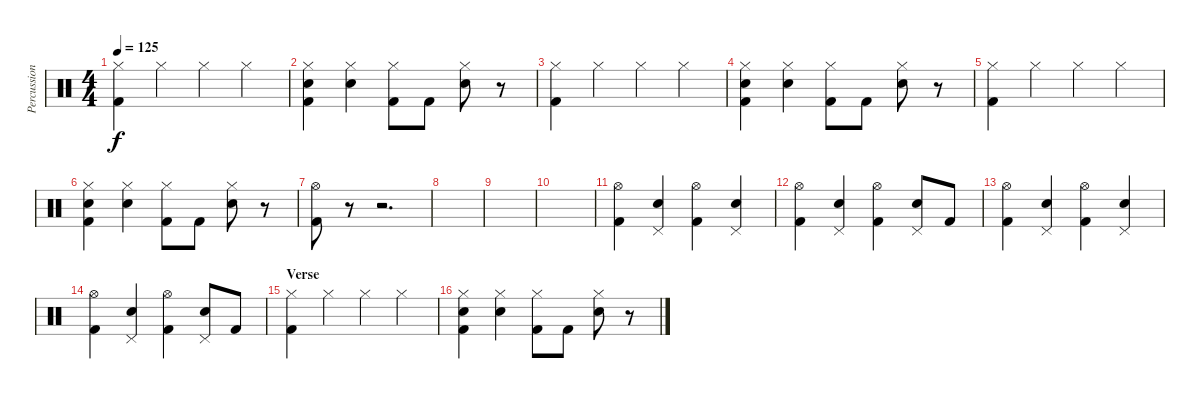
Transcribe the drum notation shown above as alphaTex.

\track ("Percussion" "Percussion") {instrument percussion}
\staff {score}
\articulation defaults
\ts (4 4)
\tempo 125
\clef neutral
\ks c
("Hi-Hat (closed)" "Kick (hit) 2").4{dy f} "Hi-Hat (closed)".4 "Hi-Hat (closed)".4 "Hi-Hat (closed)".4 |
("Hi-Hat (closed)" "Electric Snare (hit)" "Kick (hit) 2").4 ("Hi-Hat (closed)" "Electric Snare (hit)").4 ("Hi-Hat (closed)" "Kick (hit) 2").8 "Kick (hit) 2".8 ("Hi-Hat (closed)" "Electric Snare (hit)").8 r.8 |
("Hi-Hat (closed)" "Kick (hit) 2").4 "Hi-Hat (closed)".4 "Hi-Hat (closed)".4 "Hi-Hat (closed)".4 |
("Hi-Hat (closed)" "Electric Snare (hit)" "Kick (hit) 2").4 ("Hi-Hat (closed)" "Electric Snare (hit)").4 ("Hi-Hat (closed)" "Kick (hit) 2").8 "Kick (hit) 2".8 ("Hi-Hat (closed)" "Electric Snare (hit)").8 r.8 |
("Hi-Hat (closed)" "Kick (hit) 2").4 "Hi-Hat (closed)".4 "Hi-Hat (closed)".4 "Hi-Hat (closed)".4 |
("Hi-Hat (closed)" "Electric Snare (hit)" "Kick (hit) 2").4 ("Hi-Hat (closed)" "Electric Snare (hit)").4 ("Hi-Hat (closed)" "Kick (hit) 2").8 "Kick (hit) 2".8 ("Hi-Hat (closed)" "Electric Snare (hit)").8 r.8 |
("Hi-Hat (open)" "Kick (hit) 2").8 r.8 r.2{d} |
|
|
|
("Hi-Hat (open)" "Kick (hit) 2").4 ("Pedal Hi-Hat (hit)" "Electric Snare (hit)").4 ("Hi-Hat (open)" "Kick (hit) 2").4 ("Pedal Hi-Hat (hit)" "Electric Snare (hit)").4 |
("Hi-Hat (open)" "Kick (hit) 2").4 ("Pedal Hi-Hat (hit)" "Electric Snare (hit)").4 ("Hi-Hat (open)" "Kick (hit) 2").4 ("Pedal Hi-Hat (hit)" "Electric Snare (hit)").8 "Kick (hit) 2".8 |
("Hi-Hat (open)" "Kick (hit) 2").4 ("Pedal Hi-Hat (hit)" "Electric Snare (hit)").4 ("Hi-Hat (open)" "Kick (hit) 2").4 ("Pedal Hi-Hat (hit)" "Electric Snare (hit)").4 |
("Hi-Hat (open)" "Kick (hit) 2").4 ("Pedal Hi-Hat (hit)" "Electric Snare (hit)").4 ("Hi-Hat (open)" "Kick (hit) 2").4 ("Pedal Hi-Hat (hit)" "Electric Snare (hit)").8 "Kick (hit) 2".8 |
\section ("" "Verse")
("Hi-Hat (closed)" "Kick (hit) 2").4 "Hi-Hat (closed)".4 "Hi-Hat (closed)".4 "Hi-Hat (closed)".4 |
("Hi-Hat (closed)" "Electric Snare (hit)" "Kick (hit) 2").4 ("Hi-Hat (closed)" "Electric Snare (hit)").4 ("Hi-Hat (closed)" "Kick (hit) 2").8 "Kick (hit) 2".8 ("Hi-Hat (closed)" "Electric Snare (hit)").8 r.8
